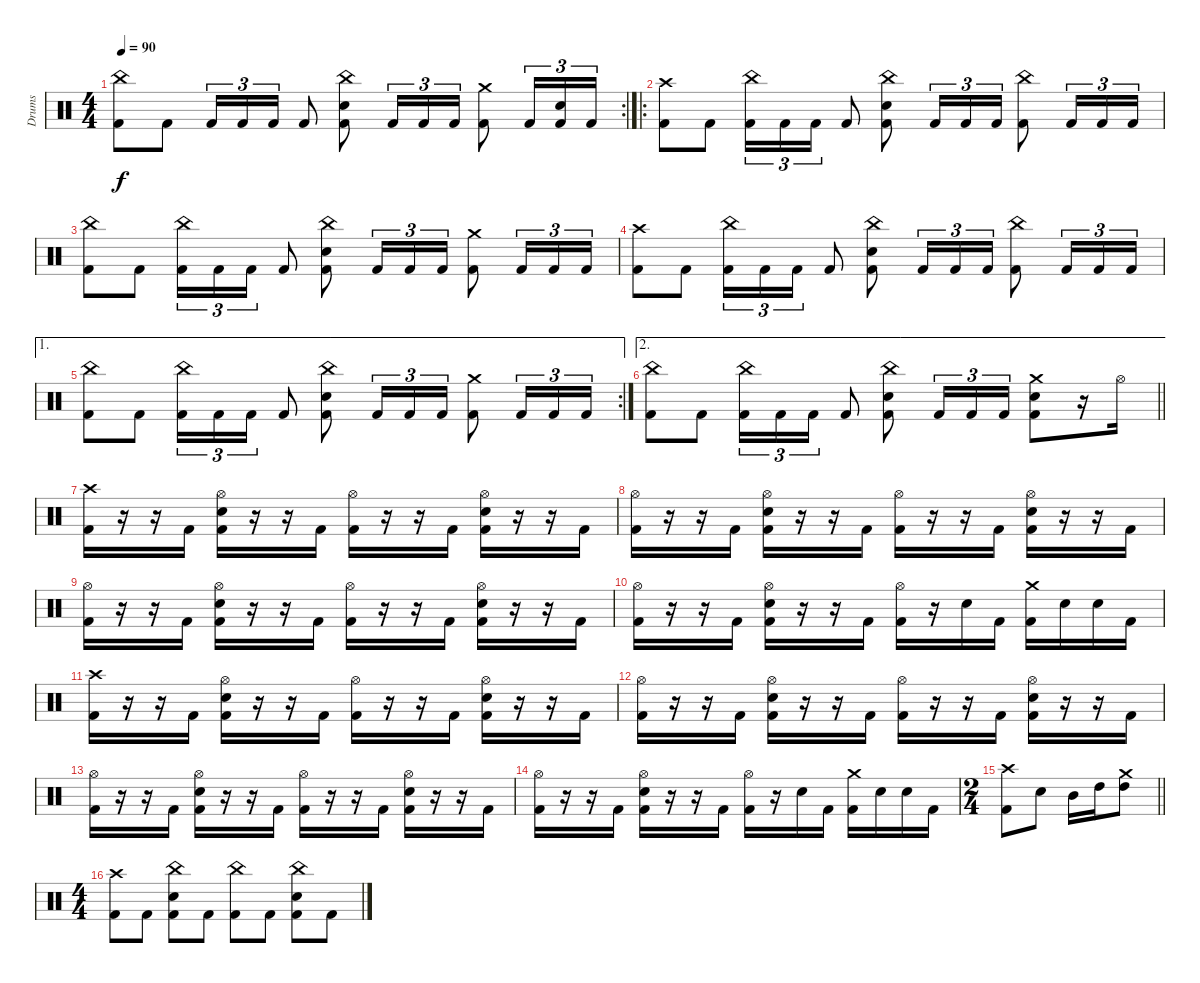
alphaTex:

\track ("Drums" "Drums") {instrument percussion}
\staff {score}
\articulation defaults
\rc 2
\ts (4 4)
\tempo 90
\clef neutral
\ks c
("China (hit)" "Kick (hit) 2").8{dy f} "Kick (hit) 2".8 "Kick (hit) 2".16{tu (3 2)} "Kick (hit) 2".16{tu (3 2)} "Kick (hit) 2".16{tu (3 2)} "Kick (hit) 2".8 ("China (hit)" "Electric Snare (hit)" "Kick (hit) 2").8 "Kick (hit) 2".16{tu (3 2)} "Kick (hit) 2".16{tu (3 2)} "Kick (hit) 2".16{tu (3 2)} ("Crash medium (hit)" "Kick (hit) 2").8 "Kick (hit) 2".16{tu (3 2)} ("Electric Snare (hit)" "Kick (hit) 2").16{tu (3 2)} "Kick (hit) 2".16{tu (3 2)} |
\ro
("Crash high (hit)" "Kick (hit) 2").8 "Kick (hit) 2".8 ("China (hit)" "Kick (hit) 2").16{tu (3 2)} "Kick (hit) 2".16{tu (3 2)} "Kick (hit) 2".16{tu (3 2)} "Kick (hit) 2".8 ("China (hit)" "Electric Snare (hit)" "Kick (hit) 2").8 "Kick (hit) 2".16{tu (3 2)} "Kick (hit) 2".16{tu (3 2)} "Kick (hit) 2".16{tu (3 2)} ("China (hit)" "Kick (hit) 2").8 "Kick (hit) 2".16{tu (3 2)} "Kick (hit) 2".16{tu (3 2)} "Kick (hit) 2".16{tu (3 2)} |
("China (hit)" "Kick (hit) 2").8 "Kick (hit) 2".8 ("China (hit)" "Kick (hit) 2").16{tu (3 2)} "Kick (hit) 2".16{tu (3 2)} "Kick (hit) 2".16{tu (3 2)} "Kick (hit) 2".8 ("China (hit)" "Electric Snare (hit)" "Kick (hit) 2").8 "Kick (hit) 2".16{tu (3 2)} "Kick (hit) 2".16{tu (3 2)} "Kick (hit) 2".16{tu (3 2)} ("Crash medium (hit)" "Kick (hit) 2").8 "Kick (hit) 2".16{tu (3 2)} "Kick (hit) 2".16{tu (3 2)} "Kick (hit) 2".16{tu (3 2)} |
("Crash high (hit)" "Kick (hit) 2").8 "Kick (hit) 2".8 ("China (hit)" "Kick (hit) 2").16{tu (3 2)} "Kick (hit) 2".16{tu (3 2)} "Kick (hit) 2".16{tu (3 2)} "Kick (hit) 2".8 ("China (hit)" "Electric Snare (hit)" "Kick (hit) 2").8 "Kick (hit) 2".16{tu (3 2)} "Kick (hit) 2".16{tu (3 2)} "Kick (hit) 2".16{tu (3 2)} ("China (hit)" "Kick (hit) 2").8 "Kick (hit) 2".16{tu (3 2)} "Kick (hit) 2".16{tu (3 2)} "Kick (hit) 2".16{tu (3 2)} |
\ae 1
\rc 2
("China (hit)" "Kick (hit) 2").8 "Kick (hit) 2".8 ("China (hit)" "Kick (hit) 2").16{tu (3 2)} "Kick (hit) 2".16{tu (3 2)} "Kick (hit) 2".16{tu (3 2)} "Kick (hit) 2".8 ("China (hit)" "Electric Snare (hit)" "Kick (hit) 2").8 "Kick (hit) 2".16{tu (3 2)} "Kick (hit) 2".16{tu (3 2)} "Kick (hit) 2".16{tu (3 2)} ("Crash medium (hit)" "Kick (hit) 2").8 "Kick (hit) 2".16{tu (3 2)} "Kick (hit) 2".16{tu (3 2)} "Kick (hit) 2".16{tu (3 2)} |
\ae 2
\barLineRight lightlight
("China (hit)" "Kick (hit) 2").8 "Kick (hit) 2".8 ("China (hit)" "Kick (hit) 2").16{tu (3 2)} "Kick (hit) 2".16{tu (3 2)} "Kick (hit) 2".16{tu (3 2)} "Kick (hit) 2".8 ("China (hit)" "Electric Snare (hit)" "Kick (hit) 2").8 "Kick (hit) 2".16{tu (3 2)} "Kick (hit) 2".16{tu (3 2)} "Kick (hit) 2".16{tu (3 2)} ("Crash medium (hit)" "Snare (hit) 2" "Kick (hit) 2").8 r.16 "Hi-Hat (open)".16 |
\section ("" "")
("Crash high (hit)" "Kick (hit) 2").16 r.16 r.16 "Kick (hit) 2".16 ("Hi-Hat (open)" "Electric Snare (hit)" "Kick (hit) 2").16 r.16 r.16 "Kick (hit) 2".16 ("Hi-Hat (open)" "Kick (hit) 2").16 r.16 r.16 "Kick (hit) 2".16 ("Hi-Hat (open)" "Electric Snare (hit)" "Kick (hit) 2").16 r.16 r.16 "Kick (hit) 2".16 |
("Hi-Hat (open)" "Kick (hit) 2").16 r.16 r.16 "Kick (hit) 2".16 ("Hi-Hat (open)" "Electric Snare (hit)" "Kick (hit) 2").16 r.16 r.16 "Kick (hit) 2".16 ("Hi-Hat (open)" "Kick (hit) 2").16 r.16 r.16 "Kick (hit) 2".16 ("Hi-Hat (open)" "Electric Snare (hit)" "Kick (hit) 2").16 r.16 r.16 "Kick (hit) 2".16 |
("Hi-Hat (open)" "Kick (hit) 2").16 r.16 r.16 "Kick (hit) 2".16 ("Hi-Hat (open)" "Electric Snare (hit)" "Kick (hit) 2").16 r.16 r.16 "Kick (hit) 2".16 ("Hi-Hat (open)" "Kick (hit) 2").16 r.16 r.16 "Kick (hit) 2".16 ("Hi-Hat (open)" "Electric Snare (hit)" "Kick (hit) 2").16 r.16 r.16 "Kick (hit) 2".16 |
("Hi-Hat (open)" "Kick (hit) 2").16 r.16 r.16 "Kick (hit) 2".16 ("Hi-Hat (open)" "Electric Snare (hit)" "Kick (hit) 2").16 r.16 r.16 "Kick (hit) 2".16 ("Hi-Hat (open)" "Kick (hit) 2").16 r.16 "Electric Snare (hit)".16 "Kick (hit) 2".16 ("Crash medium (hit)" "Kick (hit) 2").16 "Snare (hit) 2".16 "Snare (hit) 2".16 "Kick (hit) 2".16 |
("Crash high (hit)" "Kick (hit) 2").16 r.16 r.16 "Kick (hit) 2".16 ("Hi-Hat (open)" "Electric Snare (hit)" "Kick (hit) 2").16 r.16 r.16 "Kick (hit) 2".16 ("Hi-Hat (open)" "Kick (hit) 2").16 r.16 r.16 "Kick (hit) 2".16 ("Hi-Hat (open)" "Electric Snare (hit)" "Kick (hit) 2").16 r.16 r.16 "Kick (hit) 2".16 |
("Hi-Hat (open)" "Kick (hit) 2").16 r.16 r.16 "Kick (hit) 2".16 ("Hi-Hat (open)" "Electric Snare (hit)" "Kick (hit) 2").16 r.16 r.16 "Kick (hit) 2".16 ("Hi-Hat (open)" "Kick (hit) 2").16 r.16 r.16 "Kick (hit) 2".16 ("Hi-Hat (open)" "Electric Snare (hit)" "Kick (hit) 2").16 r.16 r.16 "Kick (hit) 2".16 |
("Hi-Hat (open)" "Kick (hit) 2").16 r.16 r.16 "Kick (hit) 2".16 ("Hi-Hat (open)" "Electric Snare (hit)" "Kick (hit) 2").16 r.16 r.16 "Kick (hit) 2".16 ("Hi-Hat (open)" "Kick (hit) 2").16 r.16 r.16 "Kick (hit) 2".16 ("Hi-Hat (open)" "Electric Snare (hit)" "Kick (hit) 2").16 r.16 r.16 "Kick (hit) 2".16 |
("Hi-Hat (open)" "Kick (hit) 2").16 r.16 r.16 "Kick (hit) 2".16 ("Hi-Hat (open)" "Electric Snare (hit)" "Kick (hit) 2").16 r.16 r.16 "Kick (hit) 2".16 ("Hi-Hat (open)" "Kick (hit) 2").16 r.16 "Electric Snare (hit)".16 "Kick (hit) 2".16 ("Crash medium (hit)" "Kick (hit) 2").16 "Snare (hit) 2".16 "Snare (hit) 2".16 "Kick (hit) 2".16 |
\ts (2 4)
\barLineRight lightlight
("Crash high (hit)" "Kick (hit) 2").8 "Electric Snare (hit)".8 "Mid Tom (hit)".16 "High Tom (hit)".16 ("Crash medium (hit)" "High Tom (hit)").8 |
\ts (4 4)
\section ("" "")
("Crash high (hit)" "Kick (hit) 2").8 "Kick (hit) 2".8 ("China (hit)" "Electric Snare (hit)" "Kick (hit) 2").8 "Kick (hit) 2".8 ("China (hit)" "Kick (hit) 2").8 "Kick (hit) 2".8 ("China (hit)" "Electric Snare (hit)" "Kick (hit) 2").8 "Kick (hit) 2".8
